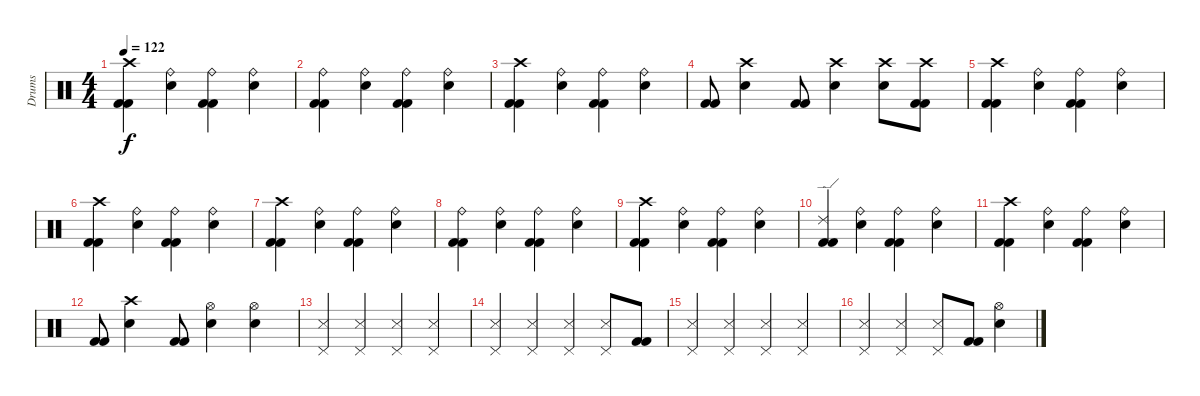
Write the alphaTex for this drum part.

\track ("Drums" "Drums") {instrument percussion}
\staff {score}
\articulation defaults
\ts (4 4)
\tempo 122
\clef neutral
\ks c
("Crash high (hit)" "Kick (hit) 2" "Kick (hit) 2").4{dy f} ("Ride (bell)" "Snare (hit) 2").4 ("Ride (bell)" "Kick (hit) 2" "Kick (hit) 2").4 ("Ride (bell)" "Snare (hit) 2").4 |
("Ride (bell)" "Kick (hit) 2" "Kick (hit) 2").4 ("Ride (bell)" "Snare (hit) 2").4 ("Ride (bell)" "Kick (hit) 2" "Kick (hit) 2").4 ("Ride (bell)" "Snare (hit) 2").4 |
("Crash high (hit)" "Kick (hit) 2" "Kick (hit) 2").4 ("Ride (bell)" "Snare (hit) 2").4 ("Ride (bell)" "Kick (hit) 2" "Kick (hit) 2").4 ("Ride (bell)" "Snare (hit) 2").4 |
("Kick (hit) 2" "Kick (hit) 2").8 ("Crash high (hit)" "Snare (hit) 2").4 ("Kick (hit) 2" "Kick (hit) 2").8 ("Crash high (hit)" "Snare (hit) 2").4 ("Crash high (hit)" "Snare (hit) 2").8 ("Crash high (hit)" "Kick (hit) 2" "Kick (hit) 2").8 |
("Crash high (hit)" "Kick (hit) 2" "Kick (hit) 2").4 ("Ride (bell)" "Snare (hit) 2").4 ("Ride (bell)" "Kick (hit) 2" "Kick (hit) 2").4 ("Ride (bell)" "Snare (hit) 2").4 |
("Crash high (hit)" "Kick (hit) 2" "Kick (hit) 2").4 ("Ride (bell)" "Snare (hit) 2").4 ("Ride (bell)" "Kick (hit) 2" "Kick (hit) 2").4 ("Ride (bell)" "Snare (hit) 2").4 |
("Crash high (hit)" "Kick (hit) 2" "Kick (hit) 2").4 ("Ride (bell)" "Snare (hit) 2").4 ("Ride (bell)" "Kick (hit) 2" "Kick (hit) 2").4 ("Ride (bell)" "Snare (hit) 2").4 |
("Ride (bell)" "Kick (hit) 2" "Kick (hit) 2").4 ("Ride (bell)" "Snare (hit) 2").4 ("Ride (bell)" "Kick (hit) 2" "Kick (hit) 2").4 ("Ride (bell)" "Snare (hit) 2").4 |
("Crash high (hit)" "Kick (hit) 2" "Kick (hit) 2").4 ("Ride (bell)" "Snare (hit) 2").4 ("Ride (bell)" "Kick (hit) 2" "Kick (hit) 2").4 ("Ride (bell)" "Snare (hit) 2").4 |
("Ride (edge) 2" "Kick (hit) 2" "Kick (hit) 2").4 ("Ride (bell)" "Snare (hit) 2").4 ("Ride (bell)" "Kick (hit) 2" "Kick (hit) 2").4 ("Ride (bell)" "Snare (hit) 2").4 |
("Crash high (hit)" "Kick (hit) 2" "Kick (hit) 2").4 ("Ride (bell)" "Snare (hit) 2").4 ("Ride (bell)" "Kick (hit) 2" "Kick (hit) 2").4 ("Ride (bell)" "Snare (hit) 2").4 |
("Kick (hit) 2" "Kick (hit) 2").8 ("Crash high (hit)" "Snare (hit) 2").4 ("Kick (hit) 2" "Kick (hit) 2").8 ("Hi-Hat (open)" "Snare (hit) 2").4 ("Hi-Hat (open)" "Snare (hit) 2").4 |
("Pedal Hi-Hat (hit)" "Snare (side stick) 3").4 ("Pedal Hi-Hat (hit)" "Snare (side stick) 3").4 ("Pedal Hi-Hat (hit)" "Snare (side stick) 3").4 ("Pedal Hi-Hat (hit)" "Snare (side stick) 3").4 |
("Pedal Hi-Hat (hit)" "Snare (side stick) 3").4 ("Pedal Hi-Hat (hit)" "Snare (side stick) 3").4 ("Pedal Hi-Hat (hit)" "Snare (side stick) 3").4 ("Pedal Hi-Hat (hit)" "Snare (side stick) 3").8 ("Kick (hit) 2" "Kick (hit) 2").8 |
("Pedal Hi-Hat (hit)" "Snare (side stick) 3").4 ("Pedal Hi-Hat (hit)" "Snare (side stick) 3").4 ("Pedal Hi-Hat (hit)" "Snare (side stick) 3").4 ("Pedal Hi-Hat (hit)" "Snare (side stick) 3").4 |
("Pedal Hi-Hat (hit)" "Snare (side stick) 3").4 ("Pedal Hi-Hat (hit)" "Snare (side stick) 3").4 ("Pedal Hi-Hat (hit)" "Snare (side stick) 3").8 ("Kick (hit) 2" "Kick (hit) 2").8 ("Hi-Hat (open)" "Snare (hit) 2").4
